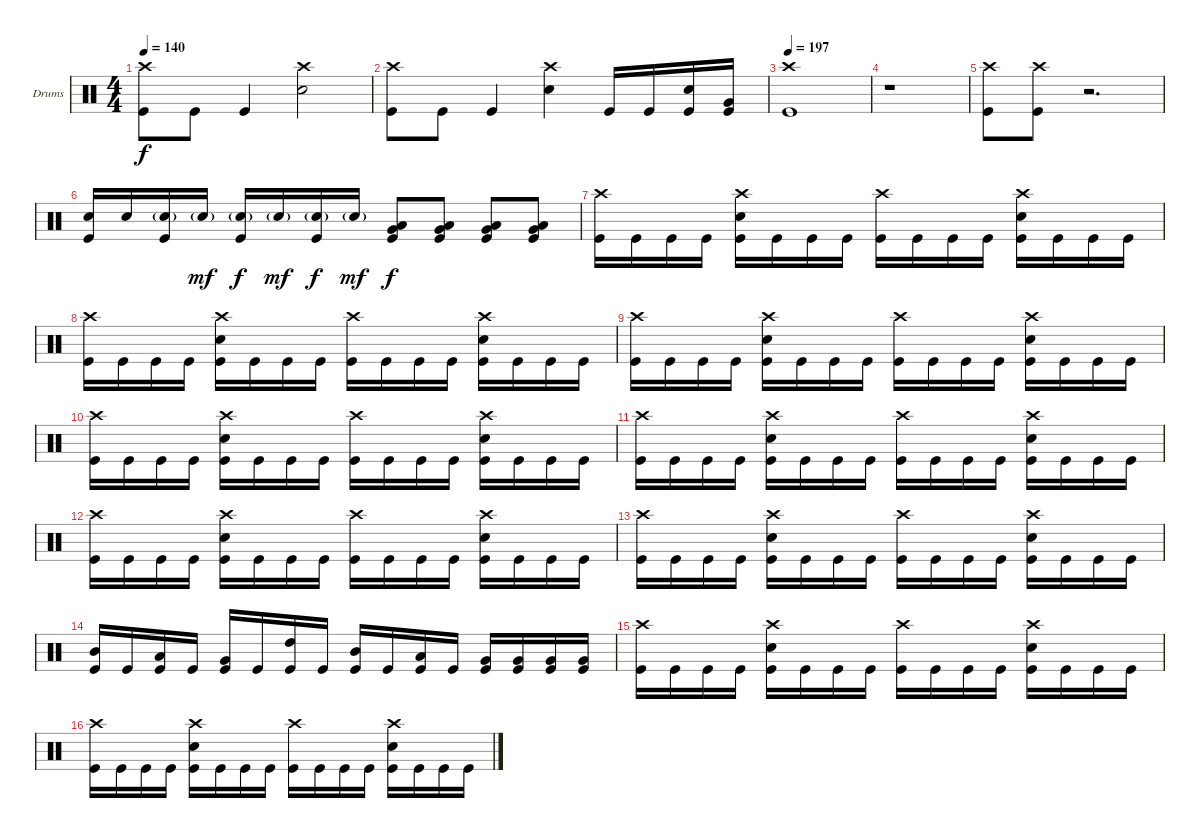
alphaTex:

\bracketExtendMode groupsimilarinstruments
\firstSystemTrackNameOrientation horizontal
\otherSystemsTrackNameOrientation horizontal
\track ("Drumkit" "Drums") {instrument percussion}
\staff {score}
\articulation defaults
\ts (4 4)
\tempo 140
\clef neutral
\ks c
("Crash high (hit)" "Kick (hit)").8{dy f} "Kick (hit)".8 "Kick (hit)".4 ("Crash high (hit)" "Snare (hit) 2").2 |
("Crash high (hit)" "Kick (hit)").8 "Kick (hit)".8 "Kick (hit)".4 ("Crash high (hit)" "Snare (hit) 2").4 "Kick (hit)".16 "Kick (hit)".16 ("Snare (hit) 2" "Kick (hit)").16 ("Very Low Tom (hit)" "Kick (hit)").16 |
\tempo 197
("Crash high (hit)" "Kick (hit)").1 |
r.1 |
("Crash high (hit)" "Kick (hit)").8 ("Crash high (hit)" "Kick (hit)").8 r.2{d} |
("Snare (hit) 2" "Kick (hit)").16 "Snare (hit) 2".16 ("Snare (hit) 2"{g} "Kick (hit)").16 "Snare (hit) 2"{g}.16{dy mf} ("Snare (hit) 2"{g} "Kick (hit)").16{dy f} "Snare (hit) 2"{g}.16{dy mf} ("Snare (hit) 2"{g} "Kick (hit)").16{dy f} "Snare (hit) 2"{g}.16{dy mf} ("Low Tom (hit)" "Very Low Tom (hit)" "Kick (hit)").8{dy f} ("Low Tom (hit)" "Very Low Tom (hit)" "Kick (hit)").8 ("Low Tom (hit)" "Very Low Tom (hit)" "Kick (hit)").8 ("Low Tom (hit)" "Very Low Tom (hit)" "Kick (hit)").8 |
("Crash high (hit)" "Kick (hit)").16 "Kick (hit)".16 "Kick (hit)".16 "Kick (hit)".16 ("Crash high (hit)" "Snare (hit) 2" "Kick (hit)").16 "Kick (hit)".16 "Kick (hit)".16 "Kick (hit)".16 ("Crash high (hit)" "Kick (hit)").16 "Kick (hit)".16 "Kick (hit)".16 "Kick (hit)".16 ("Crash high (hit)" "Snare (hit) 2" "Kick (hit)").16 "Kick (hit)".16 "Kick (hit)".16 "Kick (hit)".16 |
("Crash high (hit)" "Kick (hit)").16 "Kick (hit)".16 "Kick (hit)".16 "Kick (hit)".16 ("Crash high (hit)" "Snare (hit) 2" "Kick (hit)").16 "Kick (hit)".16 "Kick (hit)".16 "Kick (hit)".16 ("Crash high (hit)" "Kick (hit)").16 "Kick (hit)".16 "Kick (hit)".16 "Kick (hit)".16 ("Crash high (hit)" "Snare (hit) 2" "Kick (hit)").16 "Kick (hit)".16 "Kick (hit)".16 "Kick (hit)".16 |
("Crash high (hit)" "Kick (hit)").16 "Kick (hit)".16 "Kick (hit)".16 "Kick (hit)".16 ("Crash high (hit)" "Snare (hit) 2" "Kick (hit)").16 "Kick (hit)".16 "Kick (hit)".16 "Kick (hit)".16 ("Crash high (hit)" "Kick (hit)").16 "Kick (hit)".16 "Kick (hit)".16 "Kick (hit)".16 ("Crash high (hit)" "Snare (hit) 2" "Kick (hit)").16 "Kick (hit)".16 "Kick (hit)".16 "Kick (hit)".16 |
("Crash high (hit)" "Kick (hit)").16 "Kick (hit)".16 "Kick (hit)".16 "Kick (hit)".16 ("Crash high (hit)" "Snare (hit) 2" "Kick (hit)").16 "Kick (hit)".16 "Kick (hit)".16 "Kick (hit)".16 ("Crash high (hit)" "Kick (hit)").16 "Kick (hit)".16 "Kick (hit)".16 "Kick (hit)".16 ("Crash high (hit)" "Snare (hit) 2" "Kick (hit)").16 "Kick (hit)".16 "Kick (hit)".16 "Kick (hit)".16 |
("Crash high (hit)" "Kick (hit)").16 "Kick (hit)".16 "Kick (hit)".16 "Kick (hit)".16 ("Crash high (hit)" "Snare (hit) 2" "Kick (hit)").16 "Kick (hit)".16 "Kick (hit)".16 "Kick (hit)".16 ("Crash high (hit)" "Kick (hit)").16 "Kick (hit)".16 "Kick (hit)".16 "Kick (hit)".16 ("Crash high (hit)" "Snare (hit) 2" "Kick (hit)").16 "Kick (hit)".16 "Kick (hit)".16 "Kick (hit)".16 |
("Crash high (hit)" "Kick (hit)").16 "Kick (hit)".16 "Kick (hit)".16 "Kick (hit)".16 ("Crash high (hit)" "Snare (hit) 2" "Kick (hit)").16 "Kick (hit)".16 "Kick (hit)".16 "Kick (hit)".16 ("Crash high (hit)" "Kick (hit)").16 "Kick (hit)".16 "Kick (hit)".16 "Kick (hit)".16 ("Crash high (hit)" "Snare (hit) 2" "Kick (hit)").16 "Kick (hit)".16 "Kick (hit)".16 "Kick (hit)".16 |
("Crash high (hit)" "Kick (hit)").16 "Kick (hit)".16 "Kick (hit)".16 "Kick (hit)".16 ("Crash high (hit)" "Snare (hit) 2" "Kick (hit)").16 "Kick (hit)".16 "Kick (hit)".16 "Kick (hit)".16 ("Crash high (hit)" "Kick (hit)").16 "Kick (hit)".16 "Kick (hit)".16 "Kick (hit)".16 ("Crash high (hit)" "Snare (hit) 2" "Kick (hit)").16 "Kick (hit)".16 "Kick (hit)".16 "Kick (hit)".16 |
("Mid Tom (hit)" "Kick (hit)").16 "Kick (hit)".16 ("Low Tom (hit)" "Kick (hit)").16 "Kick (hit)".16 ("Very Low Tom (hit)" "Kick (hit)").16 "Kick (hit)".16 ("High Tom (hit)" "Kick (hit)").16 "Kick (hit)".16 ("Mid Tom (hit)" "Kick (hit)").16 "Kick (hit)".16 ("Low Tom (hit)" "Kick (hit)").16 "Kick (hit)".16 ("Very Low Tom (hit)" "Kick (hit)").16 ("Very Low Tom (hit)" "Kick (hit)").16 ("Very Low Tom (hit)" "Kick (hit)").16 ("Very Low Tom (hit)" "Kick (hit)").16 |
("Crash high (hit)" "Kick (hit)").16 "Kick (hit)".16 "Kick (hit)".16 "Kick (hit)".16 ("Crash high (hit)" "Snare (hit) 2" "Kick (hit)").16 "Kick (hit)".16 "Kick (hit)".16 "Kick (hit)".16 ("Crash high (hit)" "Kick (hit)").16 "Kick (hit)".16 "Kick (hit)".16 "Kick (hit)".16 ("Crash high (hit)" "Snare (hit) 2" "Kick (hit)").16 "Kick (hit)".16 "Kick (hit)".16 "Kick (hit)".16 |
("Crash high (hit)" "Kick (hit)").16 "Kick (hit)".16 "Kick (hit)".16 "Kick (hit)".16 ("Crash high (hit)" "Snare (hit) 2" "Kick (hit)").16 "Kick (hit)".16 "Kick (hit)".16 "Kick (hit)".16 ("Crash high (hit)" "Kick (hit)").16 "Kick (hit)".16 "Kick (hit)".16 "Kick (hit)".16 ("Crash high (hit)" "Snare (hit) 2" "Kick (hit)").16 "Kick (hit)".16 "Kick (hit)".16 "Kick (hit)".16
